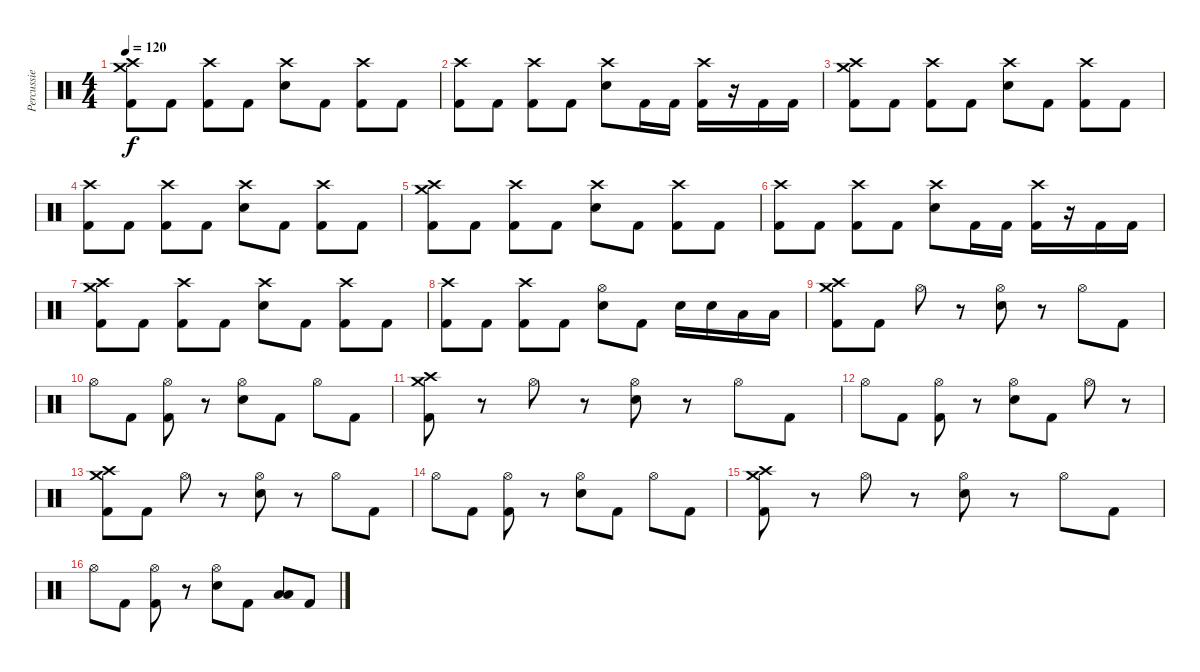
\track ("Percussie" "Percussie") {instrument percussion}
\staff {score}
\articulation defaults
\ts (4 4)
\tempo 120
\clef neutral
\ks c
("Crash medium (hit)" "Crash high (hit)" "Kick (hit) 2").8{dy f} "Kick (hit) 2".8 ("Crash high (hit)" "Kick (hit) 2").8 "Kick (hit) 2".8 ("Crash high (hit)" "Electric Snare (hit)").8 "Kick (hit) 2".8 ("Crash high (hit)" "Kick (hit) 2").8 "Kick (hit) 2".8 |
("Crash high (hit)" "Kick (hit) 2").8 "Kick (hit) 2".8 ("Crash high (hit)" "Kick (hit) 2").8 "Kick (hit) 2".8 ("Crash high (hit)" "Electric Snare (hit)").8 "Kick (hit) 2".16 "Kick (hit) 2".16 ("Crash high (hit)" "Kick (hit) 2").16 r.16 "Kick (hit) 2".16 "Kick (hit) 2".16 |
("Crash medium (hit)" "Crash high (hit)" "Kick (hit) 2").8 "Kick (hit) 2".8 ("Crash high (hit)" "Kick (hit) 2").8 "Kick (hit) 2".8 ("Crash high (hit)" "Electric Snare (hit)").8 "Kick (hit) 2".8 ("Crash high (hit)" "Kick (hit) 2").8 "Kick (hit) 2".8 |
("Crash high (hit)" "Kick (hit) 2").8 "Kick (hit) 2".8 ("Crash high (hit)" "Kick (hit) 2").8 "Kick (hit) 2".8 ("Crash high (hit)" "Electric Snare (hit)").8 "Kick (hit) 2".8 ("Crash high (hit)" "Kick (hit) 2").8 "Kick (hit) 2".8 |
("Crash medium (hit)" "Crash high (hit)" "Kick (hit) 2").8 "Kick (hit) 2".8 ("Crash high (hit)" "Kick (hit) 2").8 "Kick (hit) 2".8 ("Crash high (hit)" "Electric Snare (hit)").8 "Kick (hit) 2".8 ("Crash high (hit)" "Kick (hit) 2").8 "Kick (hit) 2".8 |
("Crash high (hit)" "Kick (hit) 2").8 "Kick (hit) 2".8 ("Crash high (hit)" "Kick (hit) 2").8 "Kick (hit) 2".8 ("Crash high (hit)" "Electric Snare (hit)").8 "Kick (hit) 2".16 "Kick (hit) 2".16 ("Crash high (hit)" "Kick (hit) 2").16 r.16 "Kick (hit) 2".16 "Kick (hit) 2".16 |
("Crash medium (hit)" "Crash high (hit)" "Kick (hit) 2").8 "Kick (hit) 2".8 ("Crash high (hit)" "Kick (hit) 2").8 "Kick (hit) 2".8 ("Crash high (hit)" "Electric Snare (hit)").8 "Kick (hit) 2".8 ("Crash high (hit)" "Kick (hit) 2").8 "Kick (hit) 2".8 |
("Crash high (hit)" "Kick (hit) 2").8 "Kick (hit) 2".8 ("Crash high (hit)" "Kick (hit) 2").8 "Kick (hit) 2".8 ("Hi-Hat (open)" "Electric Snare (hit)").8 "Kick (hit) 2".8 "Electric Snare (hit)".16 "Electric Snare (hit)".16 "Low Tom (hit)".16 "Low Tom (hit)".16 |
("Crash medium (hit)" "Crash high (hit)" "Kick (hit) 2").8 "Kick (hit) 2".8 "Hi-Hat (open)".8 r.8 ("Hi-Hat (open)" "Electric Snare (hit)").8 r.8 "Hi-Hat (open)".8 "Kick (hit) 2".8 |
"Hi-Hat (open)".8 "Kick (hit) 2".8 ("Hi-Hat (open)" "Kick (hit) 2").8 r.8 ("Hi-Hat (open)" "Electric Snare (hit)").8 "Kick (hit) 2".8 "Hi-Hat (open)".8 "Kick (hit) 2".8 |
("Crash medium (hit)" "Crash high (hit)" "Kick (hit) 2").8 r.8 "Hi-Hat (open)".8 r.8 ("Hi-Hat (open)" "Electric Snare (hit)").8 r.8 "Hi-Hat (open)".8 "Kick (hit) 2".8 |
"Hi-Hat (open)".8 "Kick (hit) 2".8 ("Hi-Hat (open)" "Kick (hit) 2").8 r.8 ("Hi-Hat (open)" "Electric Snare (hit)").8 "Kick (hit) 2".8 "Hi-Hat (open)".8 r.8 |
("Crash medium (hit)" "Crash high (hit)" "Kick (hit) 2").8 "Kick (hit) 2".8 "Hi-Hat (open)".8 r.8 ("Hi-Hat (open)" "Electric Snare (hit)").8 r.8 "Hi-Hat (open)".8 "Kick (hit) 2".8 |
"Hi-Hat (open)".8 "Kick (hit) 2".8 ("Hi-Hat (open)" "Kick (hit) 2").8 r.8 ("Hi-Hat (open)" "Electric Snare (hit)").8 "Kick (hit) 2".8 "Hi-Hat (open)".8 "Kick (hit) 2".8 |
("Crash medium (hit)" "Crash high (hit)" "Kick (hit) 2").8 r.8 "Hi-Hat (open)".8 r.8 ("Hi-Hat (open)" "Electric Snare (hit)").8 r.8 "Hi-Hat (open)".8 "Kick (hit) 2".8 |
"Hi-Hat (open)".8 "Kick (hit) 2".8 ("Hi-Hat (open)" "Kick (hit) 2").8 r.8 ("Hi-Hat (open)" "Electric Snare (hit)").8 "Kick (hit) 2".8 ("Low Tom (hit)" "Low Floor Tom (hit)").8 "Kick (hit) 2".8
